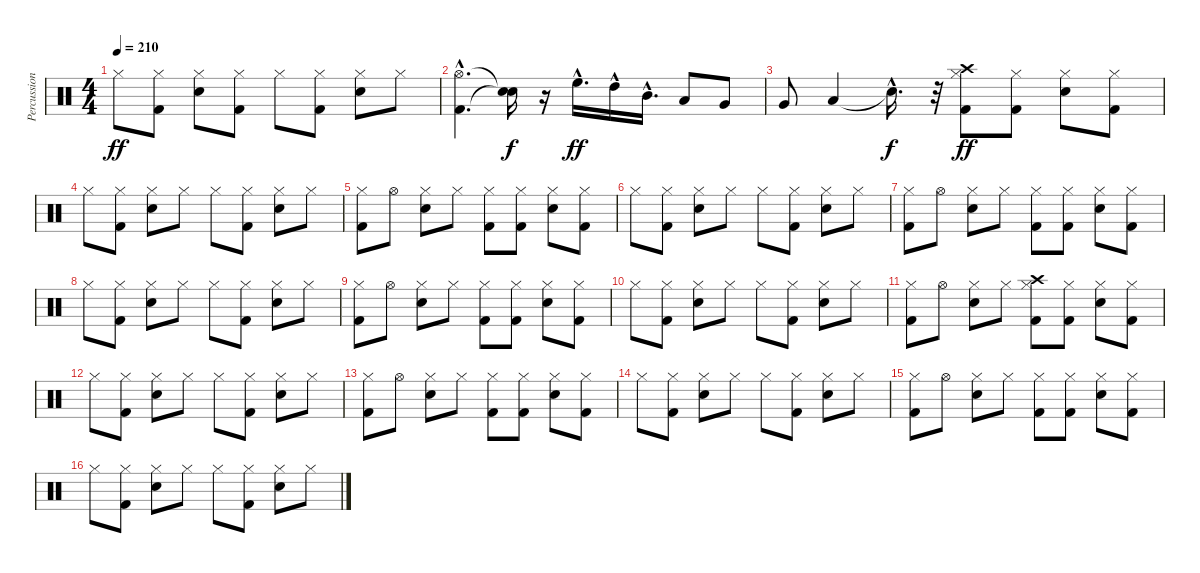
\track ("Percussions" "Percussion") {instrument percussion}
\staff {score}
\articulation defaults
\ts (4 4)
\tempo 210
\clef neutral
\ks c "Hi-Hat (closed)".8{dy ff}
("Kick (hit) 2" "Hi-Hat (closed)").8 ("Snare (hit) 2" "Hi-Hat (closed)").8 ("Kick (hit) 2" "Hi-Hat (closed)").8 "Hi-Hat (closed)".8 ("Kick (hit) 2" "Hi-Hat (closed)").8 ("Snare (hit) 2" "Hi-Hat (closed)").8 "Hi-Hat (closed)".8 |
("Kick (hit) 2"{hac} "Hi-Hat (open)"{hac}).4{d} ("Snare (hit)"{t} "Snare (hit)"{t}).16{dy f} r.16 "High Floor Tom (hit)"{hac}.16{d dy ff} "High Tom (hit)"{hac}.16 "Mid Tom (hit)"{hac}.16{d} "Low Tom (hit)".8 "Very Low Tom (hit)".8 |
"Very Low Tom (hit)".8 "Low Floor Tom (hit)".4 "Snare (hit)"{hac t}.16{d dy f} r.32 ("Kick (hit) 2" "Hi-Hat (closed)" "Crash high (hit)").8{dy ff} ("Kick (hit) 2" "Hi-Hat (closed)").8 ("Snare (hit) 2" "Hi-Hat (closed)").8 ("Kick (hit) 2" "Hi-Hat (closed)").8 |
"Hi-Hat (closed)".8 ("Kick (hit) 2" "Hi-Hat (closed)").8 ("Snare (hit) 2" "Hi-Hat (closed)").8 "Hi-Hat (closed)".8 "Hi-Hat (closed)".8 ("Kick (hit) 2" "Hi-Hat (closed)").8 ("Snare (hit) 2" "Hi-Hat (closed)").8 "Hi-Hat (closed)".8 |
("Kick (hit) 2" "Hi-Hat (closed)").8 "Hi-Hat (open)".8 ("Snare (hit) 2" "Hi-Hat (closed)").8 "Hi-Hat (closed)".8 ("Kick (hit) 2" "Hi-Hat (closed)").8 ("Kick (hit) 2" "Hi-Hat (closed)").8 ("Snare (hit) 2" "Hi-Hat (closed)").8 ("Kick (hit) 2" "Hi-Hat (closed)").8 |
"Hi-Hat (closed)".8 ("Kick (hit) 2" "Hi-Hat (closed)").8 ("Snare (hit) 2" "Hi-Hat (closed)").8 "Hi-Hat (closed)".8 "Hi-Hat (closed)".8 ("Kick (hit) 2" "Hi-Hat (closed)").8 ("Snare (hit) 2" "Hi-Hat (closed)").8 "Hi-Hat (closed)".8 |
("Kick (hit) 2" "Hi-Hat (closed)").8 "Hi-Hat (open)".8 ("Snare (hit) 2" "Hi-Hat (closed)").8 "Hi-Hat (closed)".8 ("Kick (hit) 2" "Hi-Hat (closed)").8 ("Kick (hit) 2" "Hi-Hat (closed)").8 ("Snare (hit) 2" "Hi-Hat (closed)").8 ("Kick (hit) 2" "Hi-Hat (closed)").8 |
"Hi-Hat (closed)".8 ("Kick (hit) 2" "Hi-Hat (closed)").8 ("Snare (hit) 2" "Hi-Hat (closed)").8 "Hi-Hat (closed)".8 "Hi-Hat (closed)".8 ("Kick (hit) 2" "Hi-Hat (closed)").8 ("Snare (hit) 2" "Hi-Hat (closed)").8 "Hi-Hat (closed)".8 |
("Kick (hit) 2" "Hi-Hat (closed)").8 "Hi-Hat (open)".8 ("Snare (hit) 2" "Hi-Hat (closed)").8 "Hi-Hat (closed)".8 ("Kick (hit) 2" "Hi-Hat (closed)").8 ("Kick (hit) 2" "Hi-Hat (closed)").8 ("Snare (hit) 2" "Hi-Hat (closed)").8 ("Kick (hit) 2" "Hi-Hat (closed)").8 |
"Hi-Hat (closed)".8 ("Kick (hit) 2" "Hi-Hat (closed)").8 ("Snare (hit) 2" "Hi-Hat (closed)").8 "Hi-Hat (closed)".8 "Hi-Hat (closed)".8 ("Kick (hit) 2" "Hi-Hat (closed)").8 ("Snare (hit) 2" "Hi-Hat (closed)").8 "Hi-Hat (closed)".8 |
("Kick (hit) 2" "Hi-Hat (closed)").8 "Hi-Hat (open)".8 ("Snare (hit) 2" "Hi-Hat (closed)").8 "Hi-Hat (closed)".8 ("Kick (hit) 2" "Hi-Hat (closed)" "Crash high (hit)").8 ("Kick (hit) 2" "Hi-Hat (closed)").8 ("Snare (hit) 2" "Hi-Hat (closed)").8 ("Kick (hit) 2" "Hi-Hat (closed)").8 |
"Hi-Hat (closed)".8 ("Kick (hit) 2" "Hi-Hat (closed)").8 ("Snare (hit) 2" "Hi-Hat (closed)").8 "Hi-Hat (closed)".8 "Hi-Hat (closed)".8 ("Kick (hit) 2" "Hi-Hat (closed)").8 ("Snare (hit) 2" "Hi-Hat (closed)").8 "Hi-Hat (closed)".8 |
("Kick (hit) 2" "Hi-Hat (closed)").8 "Hi-Hat (open)".8 ("Snare (hit) 2" "Hi-Hat (closed)").8 "Hi-Hat (closed)".8 ("Kick (hit) 2" "Hi-Hat (closed)").8 ("Kick (hit) 2" "Hi-Hat (closed)").8 ("Snare (hit) 2" "Hi-Hat (closed)").8 ("Kick (hit) 2" "Hi-Hat (closed)").8 |
"Hi-Hat (closed)".8 ("Kick (hit) 2" "Hi-Hat (closed)").8 ("Snare (hit) 2" "Hi-Hat (closed)").8 "Hi-Hat (closed)".8 "Hi-Hat (closed)".8 ("Kick (hit) 2" "Hi-Hat (closed)").8 ("Snare (hit) 2" "Hi-Hat (closed)").8 "Hi-Hat (closed)".8 |
("Kick (hit) 2" "Hi-Hat (closed)").8 "Hi-Hat (open)".8 ("Snare (hit) 2" "Hi-Hat (closed)").8 "Hi-Hat (closed)".8 ("Kick (hit) 2" "Hi-Hat (closed)").8 ("Kick (hit) 2" "Hi-Hat (closed)").8 ("Snare (hit) 2" "Hi-Hat (closed)").8 ("Kick (hit) 2" "Hi-Hat (closed)").8 |
"Hi-Hat (closed)".8 ("Kick (hit) 2" "Hi-Hat (closed)").8 ("Snare (hit) 2" "Hi-Hat (closed)").8 "Hi-Hat (closed)".8 "Hi-Hat (closed)".8 ("Kick (hit) 2" "Hi-Hat (closed)").8 ("Snare (hit) 2" "Hi-Hat (closed)").8 "Hi-Hat (closed)".8
